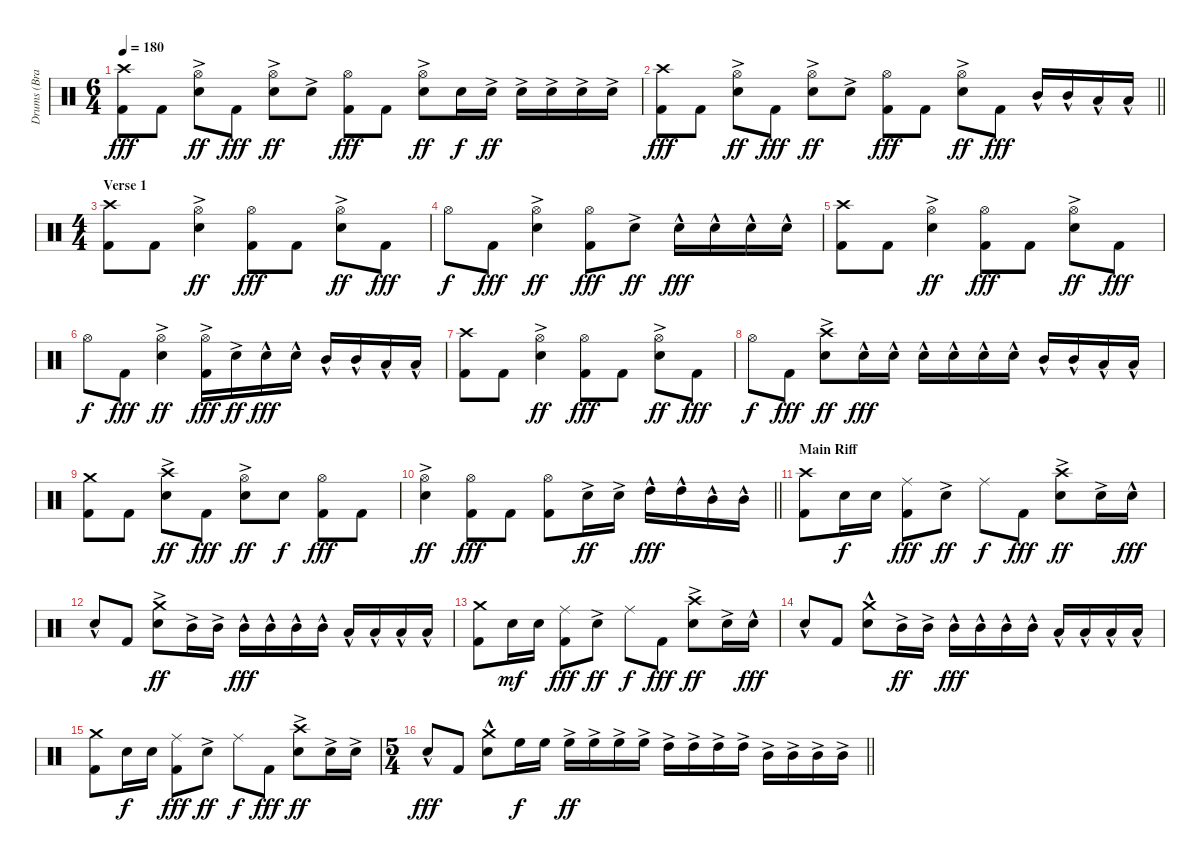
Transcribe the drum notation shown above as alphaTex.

\track ("Drums (Brann Dailor)" "Drums (Bra") {instrument percussion}
\staff {score}
\articulation defaults
\ts (6 4)
\tempo 180
\clef neutral
\ks c
("Crash high (hit)" "Kick (hit) 2").8{dy fff} "Kick (hit) 2".8 ("Hi-Hat (open)" "Electric Snare (hit)"{ac}).8{dy ff} "Kick (hit) 2".8{dy fff} ("Hi-Hat (open)" "Electric Snare (hit)"{ac}).8{dy ff} "Electric Snare (hit)"{ac}.8 ("Hi-Hat (open)" "Kick (hit) 2").8{dy fff} "Kick (hit) 2".8 ("Hi-Hat (open)" "Electric Snare (hit)"{ac}).8{dy ff} "Electric Snare (hit)".16{dy f} "Electric Snare (hit)"{ac}.16{dy ff} "Electric Snare (hit)"{ac}.16 "Electric Snare (hit)"{ac}.16 "Electric Snare (hit)"{ac}.16 "Electric Snare (hit)"{ac}.16 |
\barLineRight lightlight
("Crash high (hit)" "Kick (hit) 2").8{dy fff} "Kick (hit) 2".8 ("Hi-Hat (open)" "Electric Snare (hit)"{ac}).8{dy ff} "Kick (hit) 2".8{dy fff} ("Hi-Hat (open)" "Electric Snare (hit)"{ac}).8{dy ff} "Electric Snare (hit)"{ac}.8 ("Hi-Hat (open)" "Kick (hit) 2").8{dy fff} "Kick (hit) 2".8 ("Hi-Hat (open)" "Electric Snare (hit)"{ac}).8{dy ff} "Kick (hit) 2".8{dy fff} "Mid Tom (hit)"{hac}.16 "Mid Tom (hit)"{hac}.16 "Low Tom (hit)"{hac}.16 "Low Tom (hit)"{hac}.16 |
\ts (4 4)
\section ("" "Verse 1")
("Crash high (hit)" "Kick (hit) 2").8 "Kick (hit) 2".8 ("Hi-Hat (open)" "Electric Snare (hit)"{ac}).4{dy ff} ("Hi-Hat (open)" "Kick (hit) 2").8{dy fff} "Kick (hit) 2".8 ("Hi-Hat (open)" "Electric Snare (hit)"{ac}).8{dy ff} "Kick (hit) 2".8{dy fff} |
"Hi-Hat (open)".8{dy f} "Kick (hit) 2".8{dy fff} ("Hi-Hat (open)" "Electric Snare (hit)"{ac}).4{dy ff} ("Hi-Hat (open)" "Kick (hit) 2").8{dy fff} "Electric Snare (hit)"{ac}.8{dy ff} "Electric Snare (hit)"{hac}.16{dy fff} "Electric Snare (hit)"{hac}.16 "Electric Snare (hit)"{hac}.16 "Electric Snare (hit)"{hac}.16 |
("Crash high (hit)" "Kick (hit) 2").8 "Kick (hit) 2".8 ("Hi-Hat (open)" "Electric Snare (hit)"{ac}).4{dy ff} ("Hi-Hat (open)" "Kick (hit) 2").8{dy fff} "Kick (hit) 2".8 ("Hi-Hat (open)" "Electric Snare (hit)"{ac}).8{dy ff} "Kick (hit) 2".8{dy fff} |
"Hi-Hat (open)".8{dy f} "Kick (hit) 2".8{dy fff} ("Hi-Hat (open)"{ac} "Electric Snare (hit)"{ac}).4{dy ff} ("Hi-Hat (open)"{ac} "Kick (hit) 2").16{dy fff} "Electric Snare (hit)"{ac}.16{dy ff} "Electric Snare (hit)"{hac}.16{dy fff} "Electric Snare (hit)"{hac}.16 "Mid Tom (hit)"{hac}.16 "Mid Tom (hit)"{hac}.16 "Low Tom (hit)"{hac}.16 "Low Tom (hit)"{hac}.16 |
("Crash high (hit)" "Kick (hit) 2").8 "Kick (hit) 2".8 ("Hi-Hat (open)" "Electric Snare (hit)"{ac}).4{dy ff} ("Hi-Hat (open)" "Kick (hit) 2").8{dy fff} "Kick (hit) 2".8 ("Hi-Hat (open)" "Electric Snare (hit)"{ac}).8{dy ff} "Kick (hit) 2".8{dy fff} |
"Hi-Hat (open)".8{dy f} "Kick (hit) 2".8{dy fff} ("Crash high (hit)" "Electric Snare (hit)"{ac}).8{dy ff} "Electric Snare (hit)"{hac}.16{dy fff} "Electric Snare (hit)"{hac}.16 "Electric Snare (hit)"{hac}.16 "Electric Snare (hit)"{hac}.16 "Electric Snare (hit)"{hac}.16 "Electric Snare (hit)"{hac}.16 "Mid Tom (hit)"{hac}.16 "Mid Tom (hit)"{hac}.16 "Low Tom (hit)"{hac}.16 "Low Tom (hit)"{hac}.16 |
("Crash medium (hit)" "Kick (hit) 2").8 "Kick (hit) 2".8 ("Crash high (hit)" "Electric Snare (hit)"{ac}).8{dy ff} "Kick (hit) 2".8{dy fff} ("Hi-Hat (open)" "Electric Snare (hit)"{ac}).8{dy ff} "Electric Snare (hit)".8{dy f} ("Hi-Hat (open)" "Kick (hit) 2").8{dy fff} "Kick (hit) 2".8 |
\barLineRight lightlight
("Hi-Hat (open)" "Electric Snare (hit)"{ac}).4{dy ff} ("Hi-Hat (open)" "Kick (hit) 2").8{dy fff} "Kick (hit) 2".8 ("Hi-Hat (open)" "Kick (hit) 2").8 "Electric Snare (hit)"{ac}.16{dy ff} "Electric Snare (hit)"{ac}.16 "High Tom (hit)"{hac}.16{dy fff} "High Tom (hit)"{hac}.16 "Mid Tom (hit)"{hac}.16 "Mid Tom (hit)"{hac}.16 |
\section ("" "Main Riff")
("Crash high (hit)" "Kick (hit) 2").8 "Electric Snare (hit)".16{dy f} "Electric Snare (hit)".16 ("Ride (middle)" "Kick (hit) 2").8{dy fff} "Electric Snare (hit)"{ac}.8{dy ff} "Ride (middle)".8{dy f} "Kick (hit) 2".8{dy fff} ("Crash high (hit)" "Electric Snare (hit)"{ac}).8{dy ff} "Electric Snare (hit)"{ac}.16 "Electric Snare (hit)"{hac}.16{dy fff} |
"Electric Snare (hit)"{hac}.8 "Kick (hit) 2".8 ("Crash medium (hit)" "Electric Snare (hit)"{ac}).8{dy ff} "Mid Tom (hit)"{ac}.16 "Mid Tom (hit)"{ac}.16 "Mid Tom (hit)"{hac}.16{dy fff} "Mid Tom (hit)"{hac}.16 "Mid Tom (hit)"{hac}.16 "Mid Tom (hit)"{hac}.16 "Low Tom (hit)"{hac}.16 "Low Tom (hit)"{hac}.16 "Low Tom (hit)"{hac}.16 "Low Tom (hit)"{hac}.16 |
("Crash medium (hit)" "Kick (hit) 2").8 "Electric Snare (hit)".16{dy mf} "Electric Snare (hit)".16 ("Ride (middle)" "Kick (hit) 2").8{dy fff} "Electric Snare (hit)"{ac}.8{dy ff} "Ride (middle)".8{dy f} "Kick (hit) 2".8{dy fff} ("Crash high (hit)" "Electric Snare (hit)"{ac}).8{dy ff} "Electric Snare (hit)"{ac}.16 "Electric Snare (hit)"{hac}.16{dy fff} |
"Electric Snare (hit)"{hac}.8 "Kick (hit) 2".8 ("Crash medium (hit)" "Electric Snare (hit)"{hac}).8 "Mid Tom (hit)"{ac}.16{dy ff} "Mid Tom (hit)"{ac}.16 "Mid Tom (hit)"{hac}.16{dy fff} "Mid Tom (hit)"{hac}.16 "Mid Tom (hit)"{hac}.16 "Mid Tom (hit)"{hac}.16 "Low Tom (hit)"{hac}.16 "Low Tom (hit)"{hac}.16 "Low Tom (hit)"{hac}.16 "Low Tom (hit)"{hac}.16 |
("Crash medium (hit)" "Kick (hit) 2").8 "Electric Snare (hit)".16{dy f} "Electric Snare (hit)".16 ("Ride (middle)" "Kick (hit) 2").8{dy fff} "Electric Snare (hit)"{ac}.8{dy ff} "Ride (middle)".8{dy f} "Kick (hit) 2".8{dy fff} ("Crash high (hit)" "Electric Snare (hit)"{ac}).8{dy ff} "Electric Snare (hit)"{ac}.16 "Electric Snare (hit)"{ac}.16 |
\ts (5 4)
\barLineRight lightlight "Electric Snare (hit)"{hac}.8{dy fff} "Kick (hit) 2".8
("Crash medium (hit)" "Electric Snare (hit)"{hac}).8 "High Floor Tom (hit)".16{dy f} "High Floor Tom (hit)".16 "High Floor Tom (hit)"{ac}.16{dy ff} "High Floor Tom (hit)"{ac}.16 "High Floor Tom (hit)"{ac}.16 "High Floor Tom (hit)"{ac}.16 "High Tom (hit)"{ac}.16 "High Tom (hit)"{ac}.16 "High Tom (hit)"{ac}.16 "High Tom (hit)"{ac}.16 "Mid Tom (hit)"{ac}.16 "Mid Tom (hit)"{ac}.16 "Mid Tom (hit)"{ac}.16 "Mid Tom (hit)"{ac}.16
